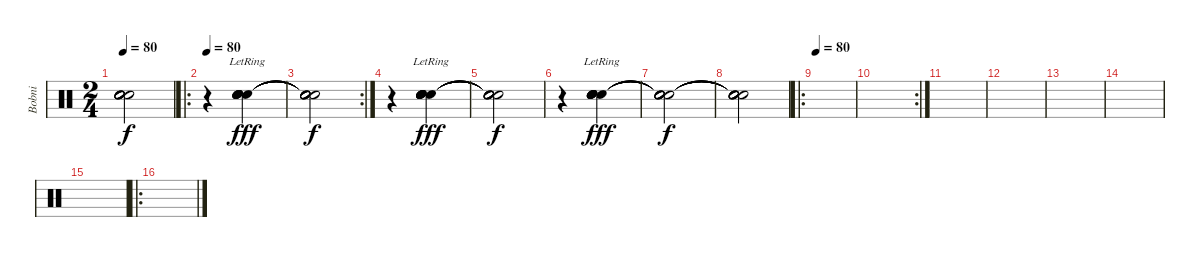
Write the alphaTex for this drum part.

\track ("Bobni" "Bobni") {instrument percussion}
\staff {score}
\articulation defaults
\ts (2 4)
\tempo 80
\clef neutral
\ks c
("Snare (hit)"{t} "Snare (hit)"{t} "Snare (hit)"{t} "Snare (hit)"{t} "Snare (hit)"{t} "Snare (hit)"{t}).2{dy f} |
\ro
\tempo 80
r.4 ("Snare (hit) 2"{lr} "Snare (hit) 2"{lr} "Snare (hit) 2"{lr} "Snare (hit) 2"{lr} "Snare (hit) 2"{lr} "Snare (hit) 2"{lr}).4{dy fff} |
\rc 2
("Snare (hit)"{t} "Snare (hit)"{t} "Snare (hit)"{t} "Snare (hit)"{t} "Snare (hit)"{t} "Snare (hit)"{t}).2{dy f} |
r.4 ("Snare (hit) 2"{lr} "Snare (hit) 2"{lr} "Snare (hit) 2"{lr} "Snare (hit) 2"{lr} "Snare (hit) 2"{lr} "Snare (hit) 2"{lr}).4{dy fff} |
("Snare (hit)"{t} "Snare (hit)"{t} "Snare (hit)"{t} "Snare (hit)"{t} "Snare (hit)"{t} "Snare (hit)"{t}).2{dy f} |
r.4 ("Snare (hit) 2"{lr} "Snare (hit) 2"{lr} "Snare (hit) 2"{lr} "Snare (hit) 2"{lr} "Snare (hit) 2"{lr} "Snare (hit) 2"{lr}).4{dy fff} |
("Snare (hit)"{t} "Snare (hit)"{t} "Snare (hit)"{t} "Snare (hit)"{t} "Snare (hit)"{t} "Snare (hit)"{t}).2{dy f} |
("Snare (hit)"{t} "Snare (hit)"{t} "Snare (hit)"{t} "Snare (hit)"{t} "Snare (hit)"{t} "Snare (hit)"{t}).2 |
\ro
\tempo 80
|
\rc 2
|
|
|
|
|
|
\ro
